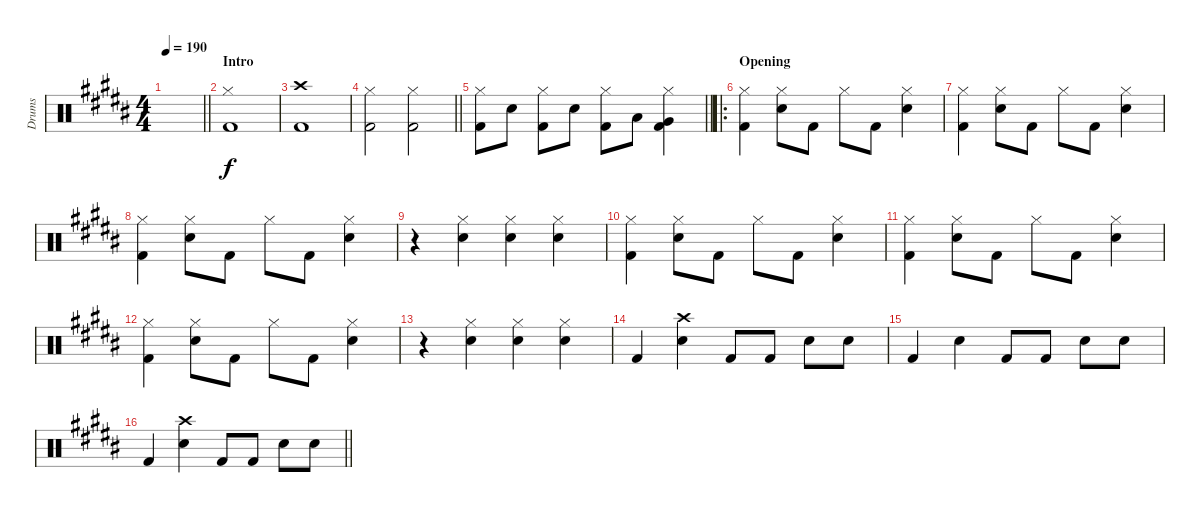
\track ("Drums" "Drums") {instrument percussion}
\staff {score}
\articulation defaults
\ts (4 4)
\tempo 190
\clef neutral
\barLineRight lightlight
\ks b
|
\section ("" "Intro")
("Hi-Hat (closed)" "Kick (hit) 2").1 |
("Crash high (hit)" "Kick (hit) 2").1 |
\barLineRight lightlight
("Hi-Hat (closed)" "Kick (hit) 2").2 ("Hi-Hat (closed)" "Kick (hit) 2").2 |
\barLineRight lightlight
("Hi-Hat (closed)" "Kick (hit) 2").8 "Electric Snare (hit)".8 ("Hi-Hat (closed)" "Kick (hit) 2").8 "Electric Snare (hit)".8 ("Hi-Hat (closed)" "Kick (hit) 2").8 "Low Tom (hit)".8 ("Hi-Hat (closed)" "Very Low Tom (hit)" "Kick (hit) 2").4 |
\ro
\section ("" "Opening")
("Hi-Hat (closed)" "Kick (hit) 2").4 ("Hi-Hat (closed)" "Electric Snare (hit)").8 "Kick (hit) 2".8 "Hi-Hat (closed)".8 "Kick (hit) 2".8 ("Hi-Hat (closed)" "Electric Snare (hit)").4 |
("Hi-Hat (closed)" "Kick (hit) 2").4 ("Hi-Hat (closed)" "Electric Snare (hit)").8 "Kick (hit) 2".8 "Hi-Hat (closed)".8 "Kick (hit) 2".8 ("Hi-Hat (closed)" "Electric Snare (hit)").4 |
("Hi-Hat (closed)" "Kick (hit) 2").4 ("Hi-Hat (closed)" "Electric Snare (hit)").8 "Kick (hit) 2".8 "Hi-Hat (closed)".8 "Kick (hit) 2".8 ("Hi-Hat (closed)" "Electric Snare (hit)").4 |
r.4 ("Hi-Hat (closed)" "Electric Snare (hit)").4 ("Hi-Hat (closed)" "Electric Snare (hit)").4 ("Hi-Hat (closed)" "Electric Snare (hit)").4 |
("Hi-Hat (closed)" "Kick (hit) 2").4 ("Hi-Hat (closed)" "Electric Snare (hit)").8 "Kick (hit) 2".8 "Hi-Hat (closed)".8 "Kick (hit) 2".8 ("Hi-Hat (closed)" "Electric Snare (hit)").4 |
("Hi-Hat (closed)" "Kick (hit) 2").4 ("Hi-Hat (closed)" "Electric Snare (hit)").8 "Kick (hit) 2".8 "Hi-Hat (closed)".8 "Kick (hit) 2".8 ("Hi-Hat (closed)" "Electric Snare (hit)").4 |
("Hi-Hat (closed)" "Kick (hit) 2").4 ("Hi-Hat (closed)" "Electric Snare (hit)").8 "Kick (hit) 2".8 "Hi-Hat (closed)".8 "Kick (hit) 2".8 ("Hi-Hat (closed)" "Electric Snare (hit)").4 |
r.4 ("Hi-Hat (closed)" "Electric Snare (hit)").4 ("Hi-Hat (closed)" "Electric Snare (hit)").4 ("Hi-Hat (closed)" "Electric Snare (hit)").4 |
"Kick (hit) 2".4 ("Crash high (hit)" "Electric Snare (hit)").4 "Kick (hit) 2".8 "Kick (hit) 2".8 "Electric Snare (hit)".8 "Electric Snare (hit)".8 |
"Kick (hit) 2".4 "Electric Snare (hit)".4 "Kick (hit) 2".8 "Kick (hit) 2".8 "Electric Snare (hit)".8 "Electric Snare (hit)".8 |
\barLineRight lightlight "Kick (hit) 2".4
("Crash high (hit)" "Electric Snare (hit)").4 "Kick (hit) 2".8 "Kick (hit) 2".8 "Electric Snare (hit)".8 "Electric Snare (hit)".8
